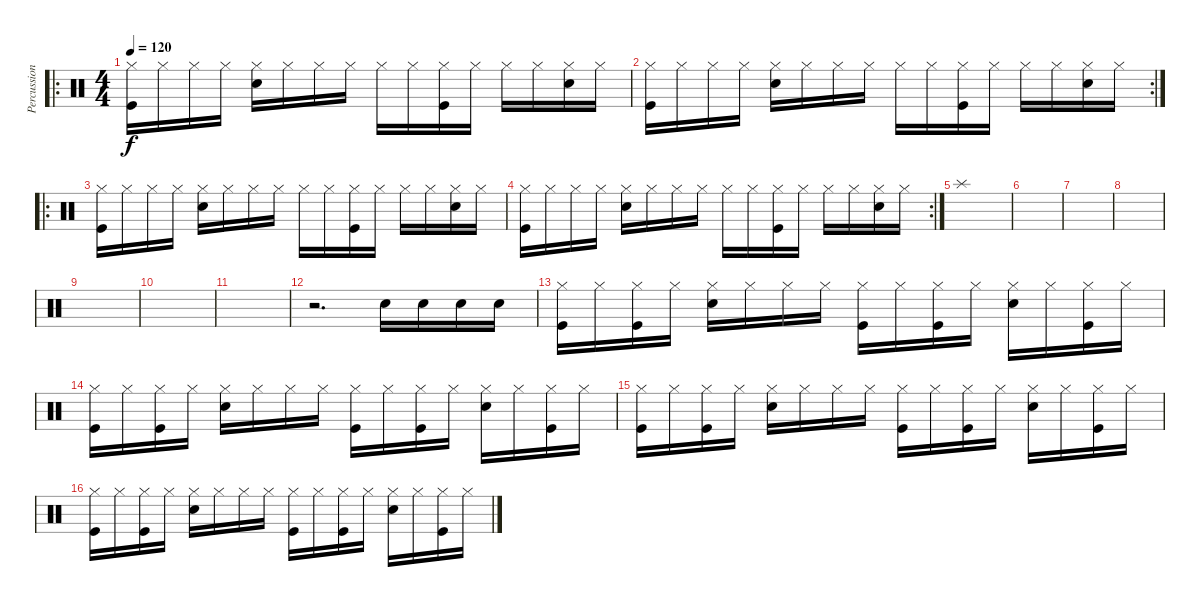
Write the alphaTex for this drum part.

\track ("Percussion" "Percussion") {instrument percussion}
\staff {score}
\articulation defaults
\ro
\ts (4 4)
\tempo 120
\clef neutral
\ks c
("Hi-Hat (closed)" "Kick (hit)").16{dy f} "Hi-Hat (closed)".16 "Hi-Hat (closed)".16 "Hi-Hat (closed)".16 ("Hi-Hat (closed)" "Snare (hit) 2").16 "Hi-Hat (closed)".16 "Hi-Hat (closed)".16 "Hi-Hat (closed)".16 "Hi-Hat (closed)".16 "Hi-Hat (closed)".16 ("Hi-Hat (closed)" "Kick (hit)").16 "Hi-Hat (closed)".16 "Hi-Hat (closed)".16 "Hi-Hat (closed)".16 ("Hi-Hat (closed)" "Snare (hit) 2").16 "Hi-Hat (closed)".16 |
\rc 2
("Hi-Hat (closed)" "Kick (hit)").16 "Hi-Hat (closed)".16 "Hi-Hat (closed)".16 "Hi-Hat (closed)".16 ("Hi-Hat (closed)" "Snare (hit) 2").16 "Hi-Hat (closed)".16 "Hi-Hat (closed)".16 "Hi-Hat (closed)".16 "Hi-Hat (closed)".16 "Hi-Hat (closed)".16 ("Hi-Hat (closed)" "Kick (hit)").16 "Hi-Hat (closed)".16 "Hi-Hat (closed)".16 "Hi-Hat (closed)".16 ("Hi-Hat (closed)" "Snare (hit) 2").16 "Hi-Hat (closed)".16 |
\ro
("Hi-Hat (closed)" "Kick (hit)").16 "Hi-Hat (closed)".16 "Hi-Hat (closed)".16 "Hi-Hat (closed)".16 ("Hi-Hat (closed)" "Snare (hit) 2").16 "Hi-Hat (closed)".16 "Hi-Hat (closed)".16 "Hi-Hat (closed)".16 "Hi-Hat (closed)".16 "Hi-Hat (closed)".16 ("Hi-Hat (closed)" "Kick (hit)").16 "Hi-Hat (closed)".16 "Hi-Hat (closed)".16 "Hi-Hat (closed)".16 ("Hi-Hat (closed)" "Snare (hit) 2").16 "Hi-Hat (closed)".16 |
\rc 2
("Hi-Hat (closed)" "Kick (hit)").16 "Hi-Hat (closed)".16 "Hi-Hat (closed)".16 "Hi-Hat (closed)".16 ("Hi-Hat (closed)" "Snare (hit) 2").16 "Hi-Hat (closed)".16 "Hi-Hat (closed)".16 "Hi-Hat (closed)".16 "Hi-Hat (closed)".16 "Hi-Hat (closed)".16 ("Hi-Hat (closed)" "Kick (hit)").16 "Hi-Hat (closed)".16 "Hi-Hat (closed)".16 "Hi-Hat (closed)".16 ("Hi-Hat (closed)" "Snare (hit) 2").16 "Hi-Hat (closed)".16 |
"Splash (hit)".1 |
|
|
|
|
|
|
r.2{d} "Snare (hit) 2".16 "Snare (hit) 2".16 "Snare (hit) 2".16 "Snare (hit) 2".16 |
("Hi-Hat (closed)" "Kick (hit)").16 "Hi-Hat (closed)".16 ("Hi-Hat (closed)" "Kick (hit)").16 "Hi-Hat (closed)".16 ("Hi-Hat (closed)" "Snare (hit) 2").16 "Hi-Hat (closed)".16 "Hi-Hat (closed)".16 "Hi-Hat (closed)".16 ("Hi-Hat (closed)" "Kick (hit)").16 "Hi-Hat (closed)".16 ("Hi-Hat (closed)" "Kick (hit)").16 "Hi-Hat (closed)".16 ("Hi-Hat (closed)" "Snare (hit) 2").16 "Hi-Hat (closed)".16 ("Hi-Hat (closed)" "Kick (hit)").16 "Hi-Hat (closed)".16 |
("Hi-Hat (closed)" "Kick (hit)").16 "Hi-Hat (closed)".16 ("Hi-Hat (closed)" "Kick (hit)").16 "Hi-Hat (closed)".16 ("Hi-Hat (closed)" "Snare (hit) 2").16 "Hi-Hat (closed)".16 "Hi-Hat (closed)".16 "Hi-Hat (closed)".16 ("Hi-Hat (closed)" "Kick (hit)").16 "Hi-Hat (closed)".16 ("Hi-Hat (closed)" "Kick (hit)").16 "Hi-Hat (closed)".16 ("Hi-Hat (closed)" "Snare (hit) 2").16 "Hi-Hat (closed)".16 ("Hi-Hat (closed)" "Kick (hit)").16 "Hi-Hat (closed)".16 |
("Hi-Hat (closed)" "Kick (hit)").16 "Hi-Hat (closed)".16 ("Hi-Hat (closed)" "Kick (hit)").16 "Hi-Hat (closed)".16 ("Hi-Hat (closed)" "Snare (hit) 2").16 "Hi-Hat (closed)".16 "Hi-Hat (closed)".16 "Hi-Hat (closed)".16 ("Hi-Hat (closed)" "Kick (hit)").16 "Hi-Hat (closed)".16 ("Hi-Hat (closed)" "Kick (hit)").16 "Hi-Hat (closed)".16 ("Hi-Hat (closed)" "Snare (hit) 2").16 "Hi-Hat (closed)".16 ("Hi-Hat (closed)" "Kick (hit)").16 "Hi-Hat (closed)".16 |
("Hi-Hat (closed)" "Kick (hit)").16 "Hi-Hat (closed)".16 ("Hi-Hat (closed)" "Kick (hit)").16 "Hi-Hat (closed)".16 ("Hi-Hat (closed)" "Snare (hit) 2").16 "Hi-Hat (closed)".16 "Hi-Hat (closed)".16 "Hi-Hat (closed)".16 ("Hi-Hat (closed)" "Kick (hit)").16 "Hi-Hat (closed)".16 ("Hi-Hat (closed)" "Kick (hit)").16 "Hi-Hat (closed)".16 ("Hi-Hat (closed)" "Snare (hit) 2").16 "Hi-Hat (closed)".16 ("Hi-Hat (closed)" "Kick (hit)").16 "Hi-Hat (closed)".16
